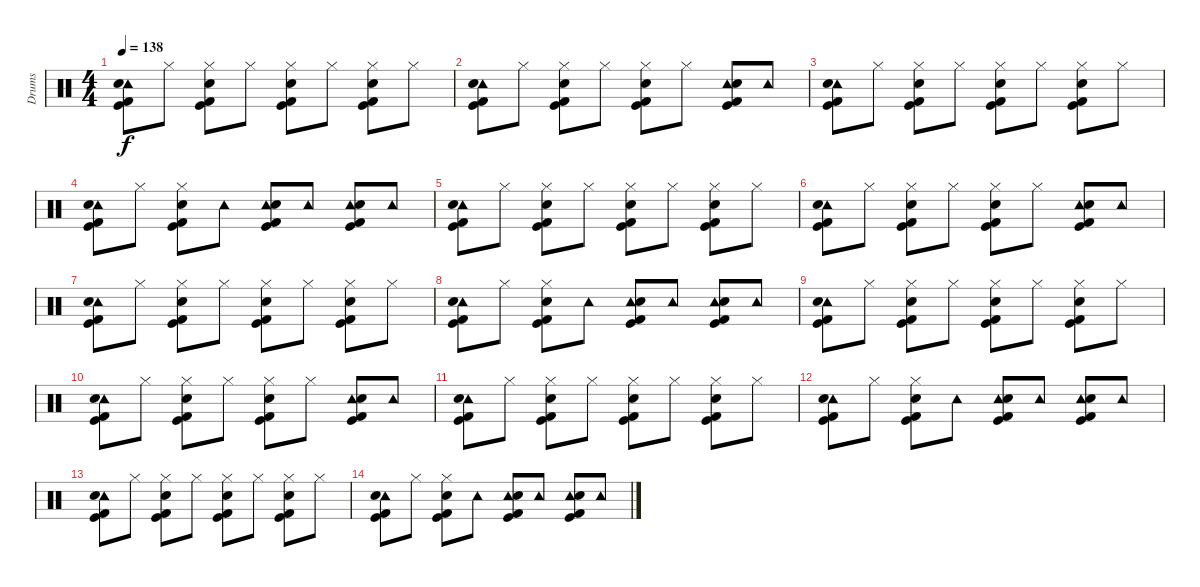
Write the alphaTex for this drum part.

\track ("Drums" "Drums") {instrument percussion}
\staff {score}
\articulation defaults
\ts (4 4)
\tempo 138
\clef neutral
\ks c
("Tambourine (hit)" "Electric Snare (hit)" "Kick (hit) 2" "Kick (hit)").8{dy f} "Hi-Hat (closed)".8 ("Hi-Hat (closed)" "Electric Snare (hit)" "Kick (hit) 2" "Kick (hit)").8 "Hi-Hat (closed)".8 ("Hi-Hat (closed)" "Electric Snare (hit)" "Kick (hit) 2" "Kick (hit)").8 "Hi-Hat (closed)".8 ("Hi-Hat (closed)" "Electric Snare (hit)" "Kick (hit) 2" "Kick (hit)").8 "Hi-Hat (closed)".8 |
("Tambourine (hit)" "Electric Snare (hit)" "Kick (hit) 2" "Kick (hit)").8 "Hi-Hat (closed)".8 ("Hi-Hat (closed)" "Electric Snare (hit)" "Kick (hit) 2" "Kick (hit)").8 "Hi-Hat (closed)".8 ("Hi-Hat (closed)" "Electric Snare (hit)" "Kick (hit) 2" "Kick (hit)").8 "Hi-Hat (closed)".8 ("Tambourine (hit)" "Electric Snare (hit)" "Kick (hit) 2" "Kick (hit)").8 "Tambourine (hit)".8 |
("Tambourine (hit)" "Electric Snare (hit)" "Kick (hit) 2" "Kick (hit)").8 "Hi-Hat (closed)".8 ("Hi-Hat (closed)" "Electric Snare (hit)" "Kick (hit) 2" "Kick (hit)").8 "Hi-Hat (closed)".8 ("Hi-Hat (closed)" "Electric Snare (hit)" "Kick (hit) 2" "Kick (hit)").8 "Hi-Hat (closed)".8 ("Hi-Hat (closed)" "Electric Snare (hit)" "Kick (hit) 2" "Kick (hit)").8 "Hi-Hat (closed)".8 |
("Tambourine (hit)" "Electric Snare (hit)" "Kick (hit) 2" "Kick (hit)").8 "Hi-Hat (closed)".8 ("Hi-Hat (closed)" "Electric Snare (hit)" "Kick (hit) 2" "Kick (hit)").8 "Tambourine (hit)".8 ("Tambourine (hit)" "Electric Snare (hit)" "Kick (hit) 2" "Kick (hit)").8 "Tambourine (hit)".8 ("Tambourine (hit)" "Electric Snare (hit)" "Kick (hit) 2" "Kick (hit)").8 "Tambourine (hit)".8 |
("Tambourine (hit)" "Electric Snare (hit)" "Kick (hit) 2" "Kick (hit)").8 "Hi-Hat (closed)".8 ("Hi-Hat (closed)" "Electric Snare (hit)" "Kick (hit) 2" "Kick (hit)").8 "Hi-Hat (closed)".8 ("Hi-Hat (closed)" "Electric Snare (hit)" "Kick (hit) 2" "Kick (hit)").8 "Hi-Hat (closed)".8 ("Hi-Hat (closed)" "Electric Snare (hit)" "Kick (hit) 2" "Kick (hit)").8 "Hi-Hat (closed)".8 |
("Tambourine (hit)" "Electric Snare (hit)" "Kick (hit) 2" "Kick (hit)").8 "Hi-Hat (closed)".8 ("Hi-Hat (closed)" "Electric Snare (hit)" "Kick (hit) 2" "Kick (hit)").8 "Hi-Hat (closed)".8 ("Hi-Hat (closed)" "Electric Snare (hit)" "Kick (hit) 2" "Kick (hit)").8 "Hi-Hat (closed)".8 ("Tambourine (hit)" "Electric Snare (hit)" "Kick (hit) 2" "Kick (hit)").8 "Tambourine (hit)".8 |
("Tambourine (hit)" "Electric Snare (hit)" "Kick (hit) 2" "Kick (hit)").8 "Hi-Hat (closed)".8 ("Hi-Hat (closed)" "Electric Snare (hit)" "Kick (hit) 2" "Kick (hit)").8 "Hi-Hat (closed)".8 ("Hi-Hat (closed)" "Electric Snare (hit)" "Kick (hit) 2" "Kick (hit)").8 "Hi-Hat (closed)".8 ("Hi-Hat (closed)" "Electric Snare (hit)" "Kick (hit) 2" "Kick (hit)").8 "Hi-Hat (closed)".8 |
("Tambourine (hit)" "Electric Snare (hit)" "Kick (hit) 2" "Kick (hit)").8 "Hi-Hat (closed)".8 ("Hi-Hat (closed)" "Electric Snare (hit)" "Kick (hit) 2" "Kick (hit)").8 "Tambourine (hit)".8 ("Tambourine (hit)" "Electric Snare (hit)" "Kick (hit) 2" "Kick (hit)").8 "Tambourine (hit)".8 ("Tambourine (hit)" "Electric Snare (hit)" "Kick (hit) 2" "Kick (hit)").8 "Tambourine (hit)".8 |
("Tambourine (hit)" "Electric Snare (hit)" "Kick (hit) 2" "Kick (hit)").8 "Hi-Hat (closed)".8 ("Hi-Hat (closed)" "Electric Snare (hit)" "Kick (hit) 2" "Kick (hit)").8 "Hi-Hat (closed)".8 ("Hi-Hat (closed)" "Electric Snare (hit)" "Kick (hit) 2" "Kick (hit)").8 "Hi-Hat (closed)".8 ("Hi-Hat (closed)" "Electric Snare (hit)" "Kick (hit) 2" "Kick (hit)").8 "Hi-Hat (closed)".8 |
("Tambourine (hit)" "Electric Snare (hit)" "Kick (hit) 2" "Kick (hit)").8 "Hi-Hat (closed)".8 ("Hi-Hat (closed)" "Electric Snare (hit)" "Kick (hit) 2" "Kick (hit)").8 "Hi-Hat (closed)".8 ("Hi-Hat (closed)" "Electric Snare (hit)" "Kick (hit) 2" "Kick (hit)").8 "Hi-Hat (closed)".8 ("Tambourine (hit)" "Electric Snare (hit)" "Kick (hit) 2" "Kick (hit)").8 "Tambourine (hit)".8 |
("Tambourine (hit)" "Electric Snare (hit)" "Kick (hit) 2" "Kick (hit)").8 "Hi-Hat (closed)".8 ("Hi-Hat (closed)" "Electric Snare (hit)" "Kick (hit) 2" "Kick (hit)").8 "Hi-Hat (closed)".8 ("Hi-Hat (closed)" "Electric Snare (hit)" "Kick (hit) 2" "Kick (hit)").8 "Hi-Hat (closed)".8 ("Hi-Hat (closed)" "Electric Snare (hit)" "Kick (hit) 2" "Kick (hit)").8 "Hi-Hat (closed)".8 |
("Tambourine (hit)" "Electric Snare (hit)" "Kick (hit) 2" "Kick (hit)").8 "Hi-Hat (closed)".8 ("Hi-Hat (closed)" "Electric Snare (hit)" "Kick (hit) 2" "Kick (hit)").8 "Tambourine (hit)".8 ("Tambourine (hit)" "Electric Snare (hit)" "Kick (hit) 2" "Kick (hit)").8 "Tambourine (hit)".8 ("Tambourine (hit)" "Electric Snare (hit)" "Kick (hit) 2" "Kick (hit)").8 "Tambourine (hit)".8 |
("Tambourine (hit)" "Electric Snare (hit)" "Kick (hit) 2" "Kick (hit)").8{volume 0} "Hi-Hat (closed)".8 ("Hi-Hat (closed)" "Electric Snare (hit)" "Kick (hit) 2" "Kick (hit)").8 "Hi-Hat (closed)".8 ("Hi-Hat (closed)" "Electric Snare (hit)" "Kick (hit) 2" "Kick (hit)").8 "Hi-Hat (closed)".8 ("Hi-Hat (closed)" "Electric Snare (hit)" "Kick (hit) 2" "Kick (hit)").8 "Hi-Hat (closed)".8 |
("Tambourine (hit)" "Electric Snare (hit)" "Kick (hit) 2" "Kick (hit)").8 "Hi-Hat (closed)".8 ("Hi-Hat (closed)" "Electric Snare (hit)" "Kick (hit) 2" "Kick (hit)").8 "Tambourine (hit)".8 ("Tambourine (hit)" "Electric Snare (hit)" "Kick (hit) 2" "Kick (hit)").8 "Tambourine (hit)".8 ("Tambourine (hit)" "Electric Snare (hit)" "Kick (hit) 2" "Kick (hit)").8 "Tambourine (hit)".8
